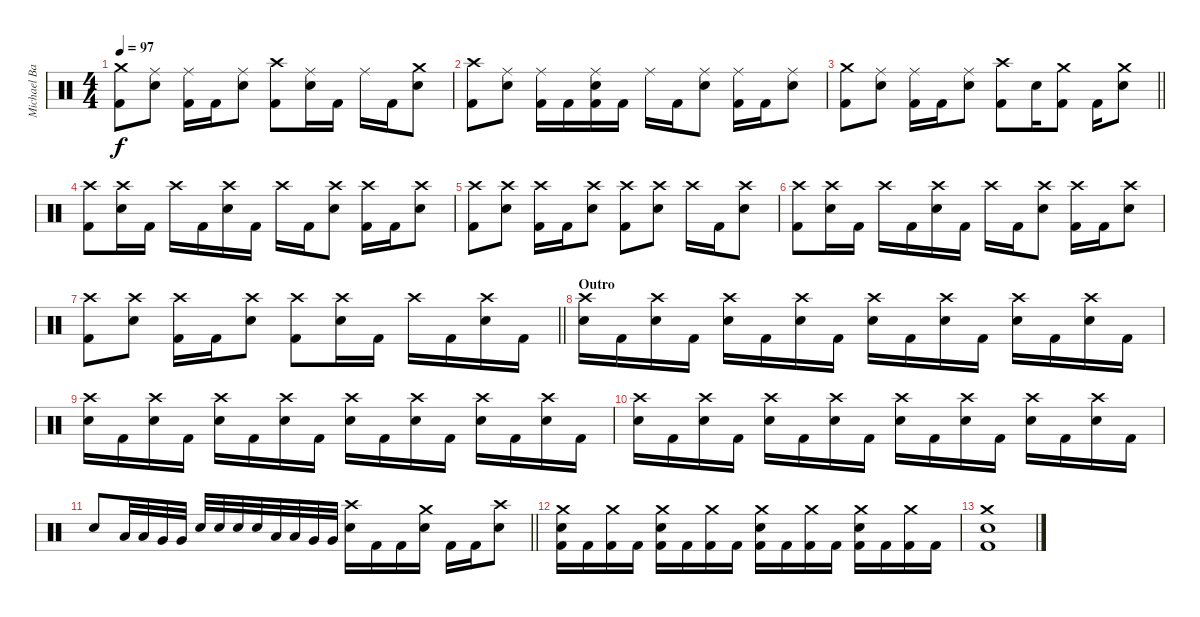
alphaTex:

\track ("Michael Bartlett" "Michael Ba") {instrument percussion}
\staff {score}
\articulation defaults
\ts (4 4)
\tempo 97
\clef neutral
\ks c
("Crash medium (hit)" "Kick (hit) 2").8{dy f} ("Snare (hit) 2" "Ride (middle)").8 ("Ride (middle)" "Kick (hit) 2").16 "Kick (hit) 2".16 ("Snare (hit) 2" "Ride (middle)").8 ("Crash high (hit)" "Kick (hit) 2").8 ("Snare (hit) 2" "Ride (middle)").16 "Kick (hit) 2".16 "Ride (middle)".16 "Kick (hit) 2".16 ("Crash medium (hit)" "Snare (hit) 2").8 |
("Crash high (hit)" "Kick (hit) 2").8 ("Snare (hit) 2" "Ride (middle)").8 ("Ride (middle)" "Kick (hit) 2").16 "Kick (hit) 2".16 ("Snare (hit) 2" "Ride (middle)" "Kick (hit) 2").16 "Kick (hit) 2".16 "Ride (middle)".16 "Kick (hit) 2".16 ("Snare (hit) 2" "Ride (middle)").8 ("Ride (middle)" "Kick (hit) 2").16 "Kick (hit) 2".16 ("Snare (hit) 2" "Ride (middle)").8 |
\barLineRight lightlight
("Crash medium (hit)" "Kick (hit) 2").8 ("Snare (hit) 2" "Ride (middle)").8 ("Ride (middle)" "Kick (hit) 2").16 "Kick (hit) 2".16 ("Snare (hit) 2" "Ride (middle)").8 ("Crash high (hit)" "Kick (hit) 2").8 "Snare (hit) 2".16 ("Crash medium (hit)" "Kick (hit) 2").8 "Kick (hit) 2".16 ("Crash medium (hit)" "Snare (hit) 2").8 |
("Crash high (hit)" "Kick (hit) 2").8 ("Crash high (hit)" "Snare (hit) 2").16 "Kick (hit) 2".16 "Crash high (hit)".16 "Kick (hit) 2".16 ("Crash high (hit)" "Snare (hit) 2").16 "Kick (hit) 2".16 "Crash high (hit)".16 "Kick (hit) 2".16 ("Crash high (hit)" "Snare (hit) 2").8 ("Crash high (hit)" "Kick (hit) 2").16 "Kick (hit) 2".16 ("Crash high (hit)" "Snare (hit) 2").8 |
("Crash high (hit)" "Kick (hit) 2").8 ("Crash high (hit)" "Snare (hit) 2").8 ("Crash high (hit)" "Kick (hit) 2").16 "Kick (hit) 2".16 ("Crash high (hit)" "Snare (hit) 2").8 ("Crash high (hit)" "Kick (hit) 2").8 ("Crash high (hit)" "Snare (hit) 2").8 "Crash high (hit)".16 "Kick (hit) 2".16 ("Crash high (hit)" "Snare (hit) 2").8 |
("Crash high (hit)" "Kick (hit) 2").8 ("Crash high (hit)" "Snare (hit) 2").16 "Kick (hit) 2".16 "Crash high (hit)".16 "Kick (hit) 2".16 ("Crash high (hit)" "Snare (hit) 2").16 "Kick (hit) 2".16 "Crash high (hit)".16 "Kick (hit) 2".16 ("Crash high (hit)" "Snare (hit) 2").8 ("Crash high (hit)" "Kick (hit) 2").16 "Kick (hit) 2".16 ("Crash high (hit)" "Snare (hit) 2").8 |
\barLineRight lightlight
("Crash high (hit)" "Kick (hit) 2").8 ("Crash high (hit)" "Snare (hit) 2").8 ("Crash high (hit)" "Kick (hit) 2").16 "Kick (hit) 2".16 ("Crash high (hit)" "Snare (hit) 2").8 ("Crash high (hit)" "Kick (hit) 2").8 ("Crash high (hit)" "Snare (hit) 2").16 "Kick (hit) 2".16 "Crash high (hit)".16 "Kick (hit) 2".16 ("Crash high (hit)" "Snare (hit) 2").16 "Kick (hit) 2".16 |
\section ("" "Outro")
("Crash high (hit)" "Snare (hit) 2").16 "Kick (hit) 2".16 ("Crash high (hit)" "Snare (hit) 2").16 "Kick (hit) 2".16 ("Crash high (hit)" "Snare (hit) 2").16 "Kick (hit) 2".16 ("Crash high (hit)" "Snare (hit) 2").16 "Kick (hit) 2".16 ("Crash high (hit)" "Snare (hit) 2").16 "Kick (hit) 2".16 ("Crash high (hit)" "Snare (hit) 2").16 "Kick (hit) 2".16 ("Crash high (hit)" "Snare (hit) 2").16 "Kick (hit) 2".16 ("Crash high (hit)" "Snare (hit) 2").16 "Kick (hit) 2".16 |
("Crash high (hit)" "Snare (hit) 2").16 "Kick (hit) 2".16 ("Crash high (hit)" "Snare (hit) 2").16 "Kick (hit) 2".16 ("Crash high (hit)" "Snare (hit) 2").16 "Kick (hit) 2".16 ("Crash high (hit)" "Snare (hit) 2").16 "Kick (hit) 2".16 ("Crash high (hit)" "Snare (hit) 2").16 "Kick (hit) 2".16 ("Crash high (hit)" "Snare (hit) 2").16 "Kick (hit) 2".16 ("Crash high (hit)" "Snare (hit) 2").16 "Kick (hit) 2".16 ("Crash high (hit)" "Snare (hit) 2").16 "Kick (hit) 2".16 |
("Crash high (hit)" "Snare (hit) 2").16 "Kick (hit) 2".16 ("Crash high (hit)" "Snare (hit) 2").16 "Kick (hit) 2".16 ("Crash high (hit)" "Snare (hit) 2").16 "Kick (hit) 2".16 ("Crash high (hit)" "Snare (hit) 2").16 "Kick (hit) 2".16 ("Crash high (hit)" "Snare (hit) 2").16 "Kick (hit) 2".16 ("Crash high (hit)" "Snare (hit) 2").16 "Kick (hit) 2".16 ("Crash high (hit)" "Snare (hit) 2").16 "Kick (hit) 2".16 ("Crash high (hit)" "Snare (hit) 2").16 "Kick (hit) 2".16 |
\barLineRight lightlight "Snare (hit) 2".8 "Low Tom (hit)".32 "Low Tom (hit)".32 "Very Low Tom (hit)".32 "Very Low Tom (hit)".32 "Snare (hit) 2".32 "Snare (hit) 2".32 "Snare (hit) 2".32 "Snare (hit) 2".32 "Low Tom (hit)".32 "Low Tom (hit)".32 "Very Low Tom (hit)".32 "Very Low Tom (hit)".32
("Crash high (hit)" "Snare (hit) 2").16 "Kick (hit) 2".16 "Kick (hit) 2".16 ("Crash medium (hit)" "Snare (hit) 2").16 "Kick (hit) 2".16 "Kick (hit) 2".16 ("Crash high (hit)" "Snare (hit) 2").8 |
("Crash medium (hit)" "Snare (hit) 2" "Kick (hit) 2").16 "Kick (hit) 2".16 ("Crash medium (hit)" "Kick (hit) 2").16 "Kick (hit) 2".16 ("Crash medium (hit)" "Snare (hit) 2" "Kick (hit) 2").16 "Kick (hit) 2".16 ("Crash medium (hit)" "Kick (hit) 2").16 "Kick (hit) 2".16 ("Crash medium (hit)" "Snare (hit) 2" "Kick (hit) 2").16 "Kick (hit) 2".16 ("Crash medium (hit)" "Kick (hit) 2").16 "Kick (hit) 2".16 ("Crash medium (hit)" "Snare (hit) 2" "Kick (hit) 2").16 "Kick (hit) 2".16 ("Crash medium (hit)" "Kick (hit) 2").16 "Kick (hit) 2".16 |
("Crash medium (hit)" "Snare (hit) 2" "Kick (hit) 2").1
